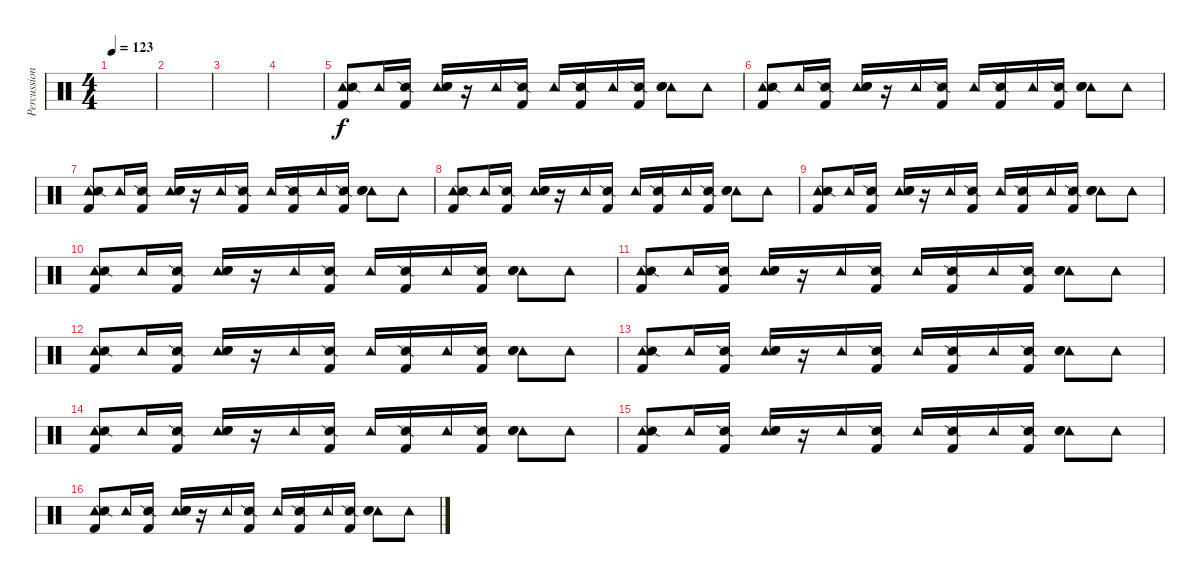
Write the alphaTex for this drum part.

\track ("Percussion" "Percussion") {instrument percussion}
\staff {score}
\articulation defaults
\ts (4 4)
\tempo 123
\clef neutral
\ks c
|
|
|
|
("Tambourine (hit)" "Snare (side stick) 2" "Kick (hit) 2").8 "Tambourine (hit)".16 ("Snare (side stick) 2" "Kick (hit) 2").16 ("Tambourine (hit)" "Electric Snare (hit)" "Snare (hit) 2").16 r.16 "Tambourine (hit)".16 ("Snare (side stick) 2" "Kick (hit) 2").16 "Tambourine (hit)".16 ("Snare (side stick) 2" "Kick (hit) 2").16 "Tambourine (hit)".16 ("Snare (side stick) 2" "Kick (hit) 2").16 ("Tambourine (hit)" "Electric Snare (hit)" "Snare (hit) 2").8 "Tambourine (hit)".8 |
("Tambourine (hit)" "Snare (side stick) 2" "Kick (hit) 2").8 "Tambourine (hit)".16 ("Snare (side stick) 2" "Kick (hit) 2").16 ("Tambourine (hit)" "Electric Snare (hit)" "Snare (hit) 2").16 r.16 "Tambourine (hit)".16 ("Snare (side stick) 2" "Kick (hit) 2").16 "Tambourine (hit)".16 ("Snare (side stick) 2" "Kick (hit) 2").16 "Tambourine (hit)".16 ("Snare (side stick) 2" "Kick (hit) 2").16 ("Tambourine (hit)" "Electric Snare (hit)" "Snare (hit) 2").8 "Tambourine (hit)".8 |
("Tambourine (hit)" "Snare (side stick) 2" "Kick (hit) 2").8 "Tambourine (hit)".16 ("Snare (side stick) 2" "Kick (hit) 2").16 ("Tambourine (hit)" "Electric Snare (hit)" "Snare (hit) 2").16 r.16 "Tambourine (hit)".16 ("Snare (side stick) 2" "Kick (hit) 2").16 "Tambourine (hit)".16 ("Snare (side stick) 2" "Kick (hit) 2").16 "Tambourine (hit)".16 ("Snare (side stick) 2" "Kick (hit) 2").16 ("Tambourine (hit)" "Electric Snare (hit)" "Snare (hit) 2").8 "Tambourine (hit)".8 |
("Tambourine (hit)" "Snare (side stick) 2" "Kick (hit) 2").8 "Tambourine (hit)".16 ("Snare (side stick) 2" "Kick (hit) 2").16 ("Tambourine (hit)" "Electric Snare (hit)" "Snare (hit) 2").16 r.16 "Tambourine (hit)".16 ("Snare (side stick) 2" "Kick (hit) 2").16 "Tambourine (hit)".16 ("Snare (side stick) 2" "Kick (hit) 2").16 "Tambourine (hit)".16 ("Snare (side stick) 2" "Kick (hit) 2").16 ("Tambourine (hit)" "Electric Snare (hit)" "Snare (hit) 2").8 "Tambourine (hit)".8 |
("Tambourine (hit)" "Snare (side stick) 2" "Kick (hit) 2").8 "Tambourine (hit)".16 ("Snare (side stick) 2" "Kick (hit) 2").16 ("Tambourine (hit)" "Electric Snare (hit)" "Snare (hit) 2").16 r.16 "Tambourine (hit)".16 ("Snare (side stick) 2" "Kick (hit) 2").16 "Tambourine (hit)".16 ("Snare (side stick) 2" "Kick (hit) 2").16 "Tambourine (hit)".16 ("Snare (side stick) 2" "Kick (hit) 2").16 ("Tambourine (hit)" "Electric Snare (hit)" "Snare (hit) 2").8 "Tambourine (hit)".8 |
("Tambourine (hit)" "Snare (side stick) 2" "Kick (hit) 2").8 "Tambourine (hit)".16 ("Snare (side stick) 2" "Kick (hit) 2").16 ("Tambourine (hit)" "Electric Snare (hit)" "Snare (hit) 2").16 r.16 "Tambourine (hit)".16 ("Snare (side stick) 2" "Kick (hit) 2").16 "Tambourine (hit)".16 ("Snare (side stick) 2" "Kick (hit) 2").16 "Tambourine (hit)".16 ("Snare (side stick) 2" "Kick (hit) 2").16 ("Tambourine (hit)" "Electric Snare (hit)" "Snare (hit) 2").8 "Tambourine (hit)".8 |
("Tambourine (hit)" "Snare (side stick) 2" "Kick (hit) 2").8 "Tambourine (hit)".16 ("Snare (side stick) 2" "Kick (hit) 2").16 ("Tambourine (hit)" "Electric Snare (hit)" "Snare (hit) 2").16 r.16 "Tambourine (hit)".16 ("Snare (side stick) 2" "Kick (hit) 2").16 "Tambourine (hit)".16 ("Snare (side stick) 2" "Kick (hit) 2").16 "Tambourine (hit)".16 ("Snare (side stick) 2" "Kick (hit) 2").16 ("Tambourine (hit)" "Electric Snare (hit)" "Snare (hit) 2").8 "Tambourine (hit)".8 |
("Tambourine (hit)" "Snare (side stick) 2" "Kick (hit) 2").8 "Tambourine (hit)".16 ("Snare (side stick) 2" "Kick (hit) 2").16 ("Tambourine (hit)" "Electric Snare (hit)" "Snare (hit) 2").16 r.16 "Tambourine (hit)".16 ("Snare (side stick) 2" "Kick (hit) 2").16 "Tambourine (hit)".16 ("Snare (side stick) 2" "Kick (hit) 2").16 "Tambourine (hit)".16 ("Snare (side stick) 2" "Kick (hit) 2").16 ("Tambourine (hit)" "Electric Snare (hit)" "Snare (hit) 2").8 "Tambourine (hit)".8 |
("Tambourine (hit)" "Snare (side stick) 2" "Kick (hit) 2").8 "Tambourine (hit)".16 ("Snare (side stick) 2" "Kick (hit) 2").16 ("Tambourine (hit)" "Electric Snare (hit)" "Snare (hit) 2").16 r.16 "Tambourine (hit)".16 ("Snare (side stick) 2" "Kick (hit) 2").16 "Tambourine (hit)".16 ("Snare (side stick) 2" "Kick (hit) 2").16 "Tambourine (hit)".16 ("Snare (side stick) 2" "Kick (hit) 2").16 ("Tambourine (hit)" "Electric Snare (hit)" "Snare (hit) 2").8 "Tambourine (hit)".8 |
("Tambourine (hit)" "Snare (side stick) 2" "Kick (hit) 2").8 "Tambourine (hit)".16 ("Snare (side stick) 2" "Kick (hit) 2").16 ("Tambourine (hit)" "Electric Snare (hit)" "Snare (hit) 2").16 r.16 "Tambourine (hit)".16 ("Snare (side stick) 2" "Kick (hit) 2").16 "Tambourine (hit)".16 ("Snare (side stick) 2" "Kick (hit) 2").16 "Tambourine (hit)".16 ("Snare (side stick) 2" "Kick (hit) 2").16 ("Tambourine (hit)" "Electric Snare (hit)" "Snare (hit) 2").8 "Tambourine (hit)".8 |
("Tambourine (hit)" "Snare (side stick) 2" "Kick (hit) 2").8 "Tambourine (hit)".16 ("Snare (side stick) 2" "Kick (hit) 2").16 ("Tambourine (hit)" "Electric Snare (hit)" "Snare (hit) 2").16 r.16 "Tambourine (hit)".16 ("Snare (side stick) 2" "Kick (hit) 2").16 "Tambourine (hit)".16 ("Snare (side stick) 2" "Kick (hit) 2").16 "Tambourine (hit)".16 ("Snare (side stick) 2" "Kick (hit) 2").16 ("Tambourine (hit)" "Electric Snare (hit)" "Snare (hit) 2").8 "Tambourine (hit)".8 |
("Tambourine (hit)" "Snare (side stick) 2" "Kick (hit) 2").8 "Tambourine (hit)".16 ("Snare (side stick) 2" "Kick (hit) 2").16 ("Tambourine (hit)" "Electric Snare (hit)" "Snare (hit) 2").16 r.16 "Tambourine (hit)".16 ("Snare (side stick) 2" "Kick (hit) 2").16 "Tambourine (hit)".16 ("Snare (side stick) 2" "Kick (hit) 2").16 "Tambourine (hit)".16 ("Snare (side stick) 2" "Kick (hit) 2").16 ("Tambourine (hit)" "Electric Snare (hit)" "Snare (hit) 2").8 "Tambourine (hit)".8
